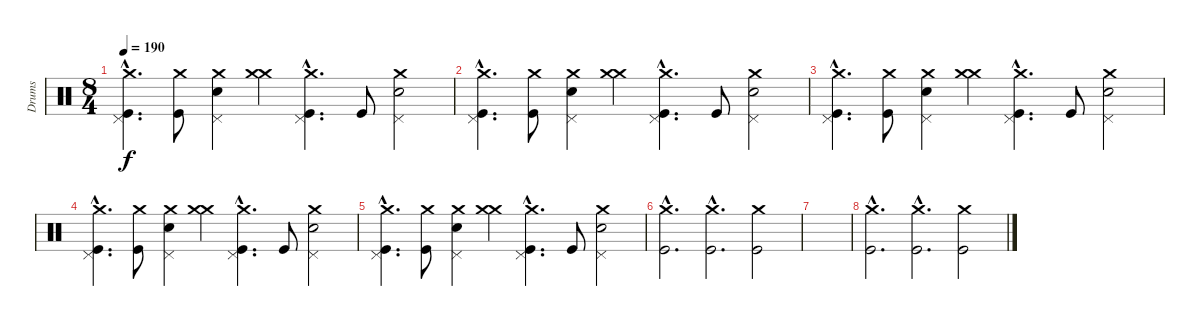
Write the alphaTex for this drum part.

\track ("Drums" "Drums") {instrument percussion}
\staff {score}
\articulation defaults
\ts (8 4)
\tempo 190
\clef neutral
\ks c
("Crash medium (hit)"{hac} "Pedal Hi-Hat (hit)"{hac} "Kick (hit)"{hac}).4{d dy f} ("Crash medium (hit)" "Kick (hit)").8 ("Pedal Hi-Hat (hit)" "Electric Snare (hit)" "Crash medium (hit)").4 ("Crash medium (hit)" "Crash medium (hit)").4 ("Pedal Hi-Hat (hit)"{hac} "Crash medium (hit)"{hac} "Kick (hit)"{hac}).4{d} "Kick (hit)".8 ("Pedal Hi-Hat (hit)" "Electric Snare (hit)" "Crash medium (hit)").2 |
("Crash medium (hit)"{hac} "Pedal Hi-Hat (hit)"{hac} "Kick (hit)"{hac}).4{d} ("Crash medium (hit)" "Kick (hit)").8 ("Pedal Hi-Hat (hit)" "Electric Snare (hit)" "Crash medium (hit)").4 ("Crash medium (hit)" "Crash medium (hit)").4 ("Pedal Hi-Hat (hit)"{hac} "Crash medium (hit)"{hac} "Kick (hit)"{hac}).4{d} "Kick (hit)".8 ("Pedal Hi-Hat (hit)" "Electric Snare (hit)" "Crash medium (hit)").2 |
("Crash medium (hit)"{hac} "Pedal Hi-Hat (hit)"{hac} "Kick (hit)"{hac}).4{d} ("Crash medium (hit)" "Kick (hit)").8 ("Pedal Hi-Hat (hit)" "Electric Snare (hit)" "Crash medium (hit)").4 ("Crash medium (hit)" "Crash medium (hit)").4 ("Pedal Hi-Hat (hit)"{hac} "Crash medium (hit)"{hac} "Kick (hit)"{hac}).4{d} "Kick (hit)".8 ("Pedal Hi-Hat (hit)" "Electric Snare (hit)" "Crash medium (hit)").2 |
("Crash medium (hit)"{hac} "Pedal Hi-Hat (hit)"{hac} "Kick (hit)"{hac}).4{d} ("Crash medium (hit)" "Kick (hit)").8 ("Pedal Hi-Hat (hit)" "Electric Snare (hit)" "Crash medium (hit)").4 ("Crash medium (hit)" "Crash medium (hit)").4 ("Pedal Hi-Hat (hit)"{hac} "Crash medium (hit)"{hac} "Kick (hit)"{hac}).4{d} "Kick (hit)".8 ("Pedal Hi-Hat (hit)" "Electric Snare (hit)" "Crash medium (hit)").2 |
("Crash medium (hit)"{hac} "Pedal Hi-Hat (hit)"{hac} "Kick (hit)"{hac}).4{d} ("Crash medium (hit)" "Kick (hit)").8 ("Pedal Hi-Hat (hit)" "Electric Snare (hit)" "Crash medium (hit)").4 ("Crash medium (hit)" "Crash medium (hit)").4 ("Pedal Hi-Hat (hit)"{hac} "Crash medium (hit)"{hac} "Kick (hit)"{hac}).4{d} "Kick (hit)".8 ("Pedal Hi-Hat (hit)" "Electric Snare (hit)" "Crash medium (hit)").2 |
("Crash medium (hit)"{hac} "Kick (hit)"{hac}).2{d} ("Crash medium (hit)"{hac} "Kick (hit)"{hac}).2{d} ("Crash medium (hit)" "Kick (hit)").2 |
|
("Crash medium (hit)"{hac} "Kick (hit)"{hac}).2{d} ("Crash medium (hit)"{hac} "Kick (hit)"{hac}).2{d} ("Crash medium (hit)" "Kick (hit)").2
